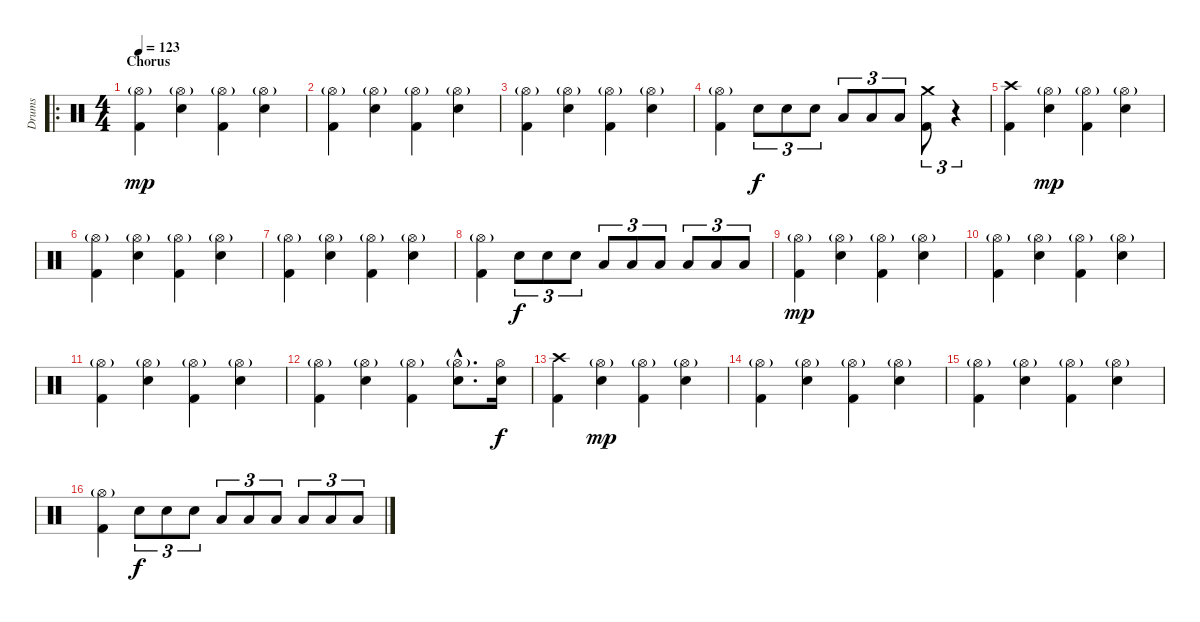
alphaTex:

\track ("Drums" "Drums") {instrument percussion}
\staff {score}
\articulation defaults
\ro
\ts (4 4)
\section ("" "Chorus")
\tempo 123
\clef neutral
\ks c
("Hi-Hat (open)"{g} "Kick (hit) 2").4{dy mp} ("Electric Snare (hit)" "Hi-Hat (open)"{g}).4 ("Hi-Hat (open)"{g} "Kick (hit) 2").4 ("Electric Snare (hit)" "Hi-Hat (open)"{g}).4 |
("Hi-Hat (open)"{g} "Kick (hit) 2").4 ("Electric Snare (hit)" "Hi-Hat (open)"{g}).4 ("Hi-Hat (open)"{g} "Kick (hit) 2").4 ("Electric Snare (hit)" "Hi-Hat (open)"{g}).4 |
("Hi-Hat (open)"{g} "Kick (hit) 2").4 ("Electric Snare (hit)" "Hi-Hat (open)"{g}).4 ("Hi-Hat (open)"{g} "Kick (hit) 2").4 ("Electric Snare (hit)" "Hi-Hat (open)"{g}).4 |
("Hi-Hat (open)"{g} "Kick (hit) 2").4 "Electric Snare (hit)".8{tu (3 2) dy f} "Electric Snare (hit)".8{tu (3 2)} "Electric Snare (hit)".8{tu (3 2)} "Low Tom (hit)".8{tu (3 2)} "Low Tom (hit)".8{tu (3 2)} "Low Tom (hit)".8{tu (3 2)} ("Crash medium (hit)" "Kick (hit) 2").8{tu (3 2)} r.4{tu (3 2)} |
("Crash high (hit)" "Kick (hit) 2").4 ("Electric Snare (hit)" "Hi-Hat (open)"{g}).4{dy mp} ("Hi-Hat (open)"{g} "Kick (hit) 2").4 ("Electric Snare (hit)" "Hi-Hat (open)"{g}).4 |
("Hi-Hat (open)"{g} "Kick (hit) 2").4 ("Electric Snare (hit)" "Hi-Hat (open)"{g}).4 ("Hi-Hat (open)"{g} "Kick (hit) 2").4 ("Electric Snare (hit)" "Hi-Hat (open)"{g}).4 |
("Hi-Hat (open)"{g} "Kick (hit) 2").4 ("Electric Snare (hit)" "Hi-Hat (open)"{g}).4 ("Hi-Hat (open)"{g} "Kick (hit) 2").4 ("Electric Snare (hit)" "Hi-Hat (open)"{g}).4 |
("Hi-Hat (open)"{g} "Kick (hit) 2").4 "Electric Snare (hit)".8{tu (3 2) dy f} "Electric Snare (hit)".8{tu (3 2)} "Electric Snare (hit)".8{tu (3 2)} "Low Tom (hit)".8{tu (3 2)} "Low Tom (hit)".8{tu (3 2)} "Low Tom (hit)".8{tu (3 2)} "Low Floor Tom (hit)".8{tu (3 2)} "Low Floor Tom (hit)".8{tu (3 2)} "Low Floor Tom (hit)".8{tu (3 2)} |
("Hi-Hat (open)"{g} "Kick (hit) 2").4{dy mp} ("Electric Snare (hit)" "Hi-Hat (open)"{g}).4 ("Hi-Hat (open)"{g} "Kick (hit) 2").4 ("Electric Snare (hit)" "Hi-Hat (open)"{g}).4 |
("Hi-Hat (open)"{g} "Kick (hit) 2").4 ("Electric Snare (hit)" "Hi-Hat (open)"{g}).4 ("Hi-Hat (open)"{g} "Kick (hit) 2").4 ("Electric Snare (hit)" "Hi-Hat (open)"{g}).4 |
("Hi-Hat (open)"{g} "Kick (hit) 2").4 ("Electric Snare (hit)" "Hi-Hat (open)"{g}).4 ("Hi-Hat (open)"{g} "Kick (hit) 2").4 ("Electric Snare (hit)" "Hi-Hat (open)"{g}).4 |
("Hi-Hat (open)"{g} "Kick (hit) 2").4 ("Electric Snare (hit)" "Hi-Hat (open)"{g}).4 ("Hi-Hat (open)"{g} "Kick (hit) 2").4 ("Electric Snare (hit)"{hac} "Hi-Hat (open)"{g hac}).8{d} ("Electric Snare (hit)" "Hi-Hat (open)").16{dy f} |
("Crash high (hit)" "Kick (hit) 2").4 ("Electric Snare (hit)" "Hi-Hat (open)"{g}).4{dy mp} ("Hi-Hat (open)"{g} "Kick (hit) 2").4 ("Electric Snare (hit)" "Hi-Hat (open)"{g}).4 |
("Hi-Hat (open)"{g} "Kick (hit) 2").4 ("Electric Snare (hit)" "Hi-Hat (open)"{g}).4 ("Hi-Hat (open)"{g} "Kick (hit) 2").4 ("Electric Snare (hit)" "Hi-Hat (open)"{g}).4 |
("Hi-Hat (open)"{g} "Kick (hit) 2").4 ("Electric Snare (hit)" "Hi-Hat (open)"{g}).4 ("Hi-Hat (open)"{g} "Kick (hit) 2").4 ("Electric Snare (hit)" "Hi-Hat (open)"{g}).4 |
("Hi-Hat (open)"{g} "Kick (hit) 2").4 "Electric Snare (hit)".8{tu (3 2) dy f} "Electric Snare (hit)".8{tu (3 2)} "Electric Snare (hit)".8{tu (3 2)} "Low Tom (hit)".8{tu (3 2)} "Low Tom (hit)".8{tu (3 2)} "Low Tom (hit)".8{tu (3 2)} "Low Floor Tom (hit)".8{tu (3 2)} "Low Floor Tom (hit)".8{tu (3 2)} "Low Floor Tom (hit)".8{tu (3 2)}
